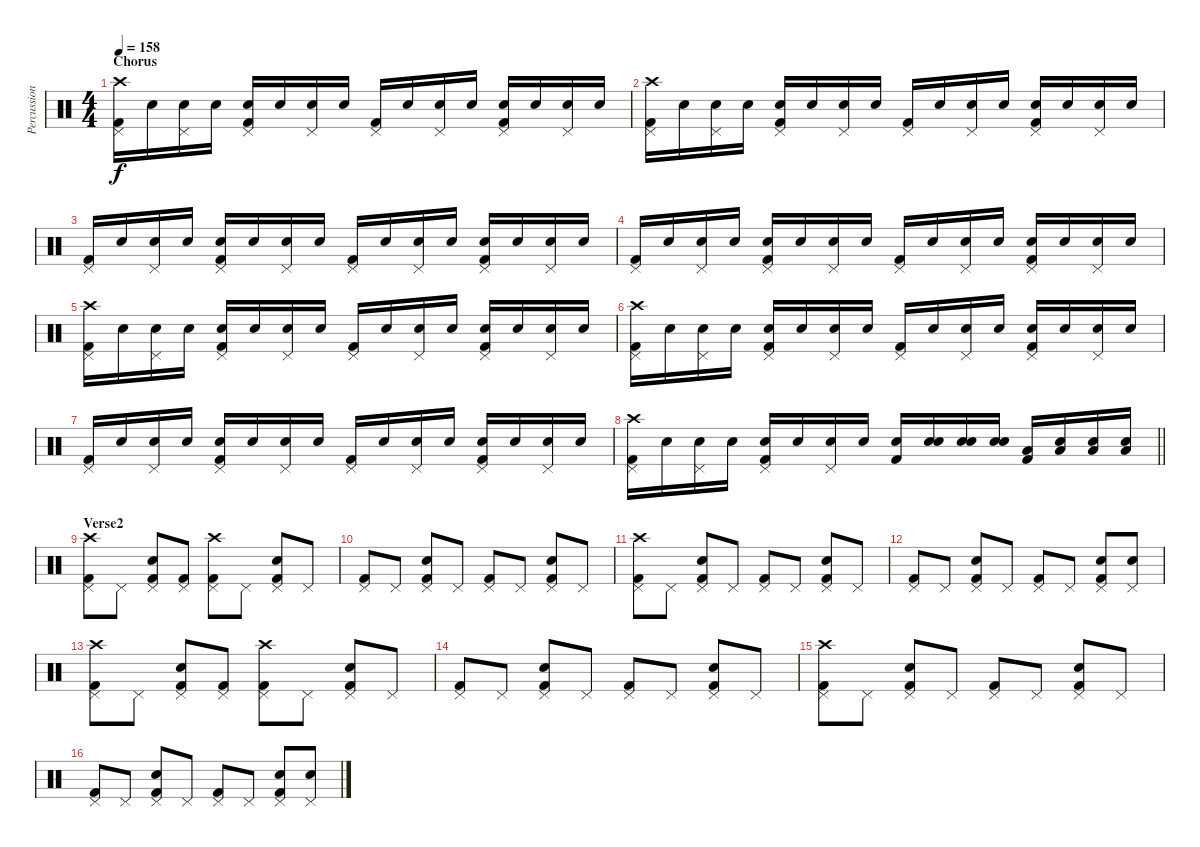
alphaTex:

\track ("Percussion" "Percussion") {instrument percussion}
\staff {score}
\articulation defaults
\ts (4 4)
\section ("" "Chorus")
\tempo 158
\clef neutral
\ks c
("Crash high (hit)" "Kick (hit) 2" "Pedal Hi-Hat (hit)").16{dy f} "Snare (hit)".16 ("Snare (hit)" "Pedal Hi-Hat (hit)").16 "Snare (hit)".16 ("Snare (hit) 2" "Kick (hit) 2" "Pedal Hi-Hat (hit)").16 "Snare (hit)".16 ("Snare (hit)" "Pedal Hi-Hat (hit)").16 "Snare (hit)".16 ("Kick (hit) 2" "Pedal Hi-Hat (hit)").16 "Snare (hit)".16 ("Snare (hit)" "Pedal Hi-Hat (hit)").16 "Snare (hit)".16 ("Snare (hit) 2" "Kick (hit) 2" "Pedal Hi-Hat (hit)").16 "Snare (hit)".16 ("Snare (hit)" "Pedal Hi-Hat (hit)").16 "Snare (hit)".16 |
("Crash high (hit)" "Kick (hit) 2" "Pedal Hi-Hat (hit)").16 "Snare (hit)".16 ("Snare (hit)" "Pedal Hi-Hat (hit)").16 "Snare (hit)".16 ("Snare (hit) 2" "Kick (hit) 2" "Pedal Hi-Hat (hit)").16 "Snare (hit)".16 ("Snare (hit)" "Pedal Hi-Hat (hit)").16 "Snare (hit)".16 ("Kick (hit) 2" "Pedal Hi-Hat (hit)").16 "Snare (hit)".16 ("Snare (hit)" "Pedal Hi-Hat (hit)").16 "Snare (hit)".16 ("Snare (hit) 2" "Kick (hit) 2" "Pedal Hi-Hat (hit)").16 "Snare (hit)".16 ("Snare (hit)" "Pedal Hi-Hat (hit)").16 "Snare (hit)".16 |
("Kick (hit) 2" "Pedal Hi-Hat (hit)").16 "Snare (hit)".16 ("Snare (hit)" "Pedal Hi-Hat (hit)").16 "Snare (hit)".16 ("Snare (hit) 2" "Kick (hit) 2" "Pedal Hi-Hat (hit)").16 "Snare (hit)".16 ("Snare (hit)" "Pedal Hi-Hat (hit)").16 "Snare (hit)".16 ("Kick (hit) 2" "Pedal Hi-Hat (hit)").16 "Snare (hit)".16 ("Snare (hit)" "Pedal Hi-Hat (hit)").16 "Snare (hit)".16 ("Snare (hit) 2" "Kick (hit) 2" "Pedal Hi-Hat (hit)").16 "Snare (hit)".16 ("Snare (hit)" "Pedal Hi-Hat (hit)").16 "Snare (hit)".16 |
("Kick (hit) 2" "Pedal Hi-Hat (hit)").16 "Snare (hit)".16 ("Snare (hit)" "Pedal Hi-Hat (hit)").16 "Snare (hit)".16 ("Snare (hit) 2" "Kick (hit) 2" "Pedal Hi-Hat (hit)").16 "Snare (hit)".16 ("Snare (hit)" "Pedal Hi-Hat (hit)").16 "Snare (hit)".16 ("Kick (hit) 2" "Pedal Hi-Hat (hit)").16 "Snare (hit)".16 ("Snare (hit)" "Pedal Hi-Hat (hit)").16 "Snare (hit)".16 ("Snare (hit) 2" "Kick (hit) 2" "Pedal Hi-Hat (hit)").16 "Snare (hit)".16 ("Snare (hit)" "Pedal Hi-Hat (hit)").16 "Snare (hit)".16 |
("Crash high (hit)" "Kick (hit) 2" "Pedal Hi-Hat (hit)").16 "Snare (hit)".16 ("Snare (hit)" "Pedal Hi-Hat (hit)").16 "Snare (hit)".16 ("Snare (hit) 2" "Kick (hit) 2" "Pedal Hi-Hat (hit)").16 "Snare (hit)".16 ("Snare (hit)" "Pedal Hi-Hat (hit)").16 "Snare (hit)".16 ("Kick (hit) 2" "Pedal Hi-Hat (hit)").16 "Snare (hit)".16 ("Snare (hit)" "Pedal Hi-Hat (hit)").16 "Snare (hit)".16 ("Snare (hit) 2" "Kick (hit) 2" "Pedal Hi-Hat (hit)").16 "Snare (hit)".16 ("Snare (hit)" "Pedal Hi-Hat (hit)").16 "Snare (hit)".16 |
("Crash high (hit)" "Kick (hit) 2" "Pedal Hi-Hat (hit)").16 "Snare (hit)".16 ("Snare (hit)" "Pedal Hi-Hat (hit)").16 "Snare (hit)".16 ("Snare (hit) 2" "Kick (hit) 2" "Pedal Hi-Hat (hit)").16 "Snare (hit)".16 ("Snare (hit)" "Pedal Hi-Hat (hit)").16 "Snare (hit)".16 ("Kick (hit) 2" "Pedal Hi-Hat (hit)").16 "Snare (hit)".16 ("Snare (hit)" "Pedal Hi-Hat (hit)").16 "Snare (hit)".16 ("Snare (hit) 2" "Kick (hit) 2" "Pedal Hi-Hat (hit)").16 "Snare (hit)".16 ("Snare (hit)" "Pedal Hi-Hat (hit)").16 "Snare (hit)".16 |
("Kick (hit) 2" "Pedal Hi-Hat (hit)").16 "Snare (hit)".16 ("Snare (hit)" "Pedal Hi-Hat (hit)").16 "Snare (hit)".16 ("Snare (hit) 2" "Kick (hit) 2" "Pedal Hi-Hat (hit)").16 "Snare (hit)".16 ("Snare (hit)" "Pedal Hi-Hat (hit)").16 "Snare (hit)".16 ("Kick (hit) 2" "Pedal Hi-Hat (hit)").16 "Snare (hit)".16 ("Snare (hit)" "Pedal Hi-Hat (hit)").16 "Snare (hit)".16 ("Snare (hit) 2" "Kick (hit) 2" "Pedal Hi-Hat (hit)").16 "Snare (hit)".16 ("Snare (hit)" "Pedal Hi-Hat (hit)").16 "Snare (hit)".16 |
\barLineRight lightlight
("Crash high (hit)" "Kick (hit) 2" "Pedal Hi-Hat (hit)").16 "Snare (hit)".16 ("Snare (hit)" "Pedal Hi-Hat (hit)").16 "Snare (hit)".16 ("Snare (hit) 2" "Kick (hit) 2" "Pedal Hi-Hat (hit)").16 "Snare (hit)".16 ("Snare (hit)" "Pedal Hi-Hat (hit)").16 "Snare (hit)".16 ("Snare (hit) 2" "Kick (hit) 2").16 ("Snare (hit) 2" "Snare (hit)").16 ("Snare (hit) 2" "Snare (hit)").16 ("Snare (hit) 2" "Snare (hit)").16 ("Low Tom (hit)" "Kick (hit) 2").16 ("Low Tom (hit)" "Snare (hit)").16 ("Low Tom (hit)" "Snare (hit)").16 ("Low Tom (hit)" "Snare (hit)").16 |
\section ("" "Verse2")
("Crash high (hit)" "Kick (hit) 2" "Pedal Hi-Hat (hit)").8 "Pedal Hi-Hat (hit)".8 ("Snare (hit) 2" "Kick (hit) 2" "Pedal Hi-Hat (hit)").8 ("Kick (hit) 2" "Pedal Hi-Hat (hit)").8 ("Crash high (hit)" "Kick (hit) 2" "Pedal Hi-Hat (hit)").8 "Pedal Hi-Hat (hit)".8 ("Snare (hit) 2" "Kick (hit) 2" "Pedal Hi-Hat (hit)").8 "Pedal Hi-Hat (hit)".8 |
("Kick (hit) 2" "Pedal Hi-Hat (hit)").8 "Pedal Hi-Hat (hit)".8 ("Snare (hit) 2" "Kick (hit) 2" "Pedal Hi-Hat (hit)").8 "Pedal Hi-Hat (hit)".8 ("Kick (hit) 2" "Pedal Hi-Hat (hit)").8 "Pedal Hi-Hat (hit)".8 ("Snare (hit) 2" "Kick (hit) 2" "Pedal Hi-Hat (hit)").8 "Pedal Hi-Hat (hit)".8 |
("Crash high (hit)" "Kick (hit) 2" "Pedal Hi-Hat (hit)").8 "Pedal Hi-Hat (hit)".8 ("Snare (hit) 2" "Kick (hit) 2" "Pedal Hi-Hat (hit)").8 "Pedal Hi-Hat (hit)".8 ("Kick (hit) 2" "Pedal Hi-Hat (hit)").8 "Pedal Hi-Hat (hit)".8 ("Snare (hit) 2" "Kick (hit) 2" "Pedal Hi-Hat (hit)").8 "Pedal Hi-Hat (hit)".8 |
("Kick (hit) 2" "Pedal Hi-Hat (hit)").8 "Pedal Hi-Hat (hit)".8 ("Snare (hit) 2" "Kick (hit) 2" "Pedal Hi-Hat (hit)").8 "Pedal Hi-Hat (hit)".8 ("Kick (hit) 2" "Pedal Hi-Hat (hit)").8 "Pedal Hi-Hat (hit)".8 ("Snare (hit) 2" "Kick (hit) 2" "Pedal Hi-Hat (hit)").8 ("Snare (hit) 2" "Pedal Hi-Hat (hit)").8 |
("Crash high (hit)" "Kick (hit) 2" "Pedal Hi-Hat (hit)").8 "Pedal Hi-Hat (hit)".8 ("Snare (hit) 2" "Kick (hit) 2" "Pedal Hi-Hat (hit)").8 ("Kick (hit) 2" "Pedal Hi-Hat (hit)").8 ("Crash high (hit)" "Kick (hit) 2" "Pedal Hi-Hat (hit)").8 "Pedal Hi-Hat (hit)".8 ("Snare (hit) 2" "Kick (hit) 2" "Pedal Hi-Hat (hit)").8 "Pedal Hi-Hat (hit)".8 |
("Kick (hit) 2" "Pedal Hi-Hat (hit)").8 "Pedal Hi-Hat (hit)".8 ("Snare (hit) 2" "Kick (hit) 2" "Pedal Hi-Hat (hit)").8 "Pedal Hi-Hat (hit)".8 ("Kick (hit) 2" "Pedal Hi-Hat (hit)").8 "Pedal Hi-Hat (hit)".8 ("Snare (hit) 2" "Kick (hit) 2" "Pedal Hi-Hat (hit)").8 "Pedal Hi-Hat (hit)".8 |
("Crash high (hit)" "Kick (hit) 2" "Pedal Hi-Hat (hit)").8 "Pedal Hi-Hat (hit)".8 ("Snare (hit) 2" "Kick (hit) 2" "Pedal Hi-Hat (hit)").8 "Pedal Hi-Hat (hit)".8 ("Kick (hit) 2" "Pedal Hi-Hat (hit)").8 "Pedal Hi-Hat (hit)".8 ("Snare (hit) 2" "Kick (hit) 2" "Pedal Hi-Hat (hit)").8 "Pedal Hi-Hat (hit)".8 |
("Kick (hit) 2" "Pedal Hi-Hat (hit)").8 "Pedal Hi-Hat (hit)".8 ("Snare (hit) 2" "Kick (hit) 2" "Pedal Hi-Hat (hit)").8 "Pedal Hi-Hat (hit)".8 ("Kick (hit) 2" "Pedal Hi-Hat (hit)").8 "Pedal Hi-Hat (hit)".8 ("Snare (hit) 2" "Kick (hit) 2" "Pedal Hi-Hat (hit)").8 ("Snare (hit) 2" "Pedal Hi-Hat (hit)").8
